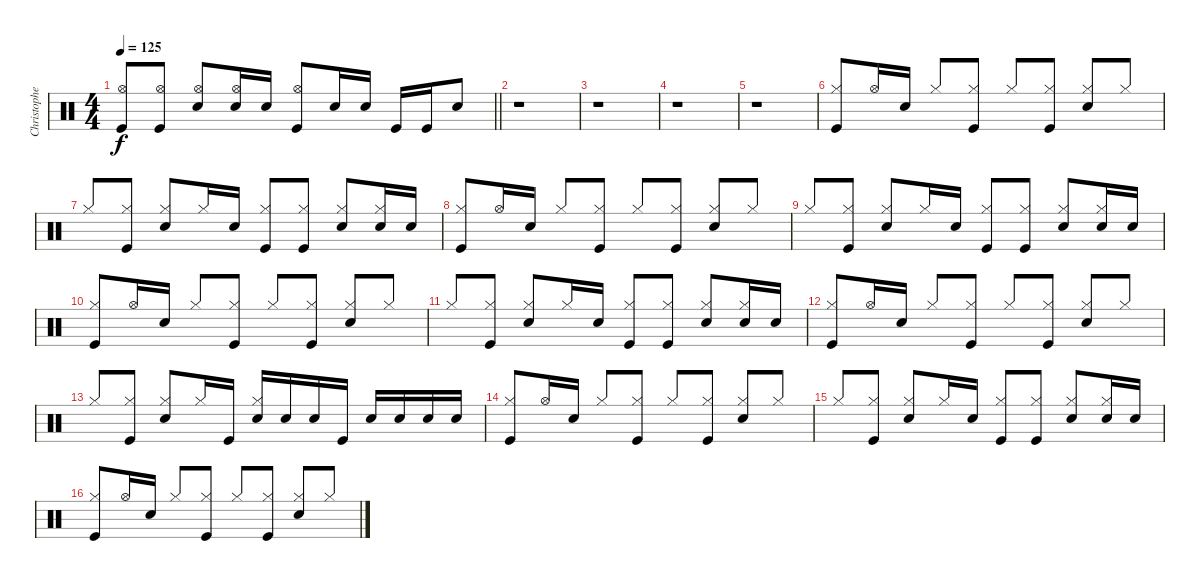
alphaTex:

\track ("Christopher Guanlao - Drums" "Christophe") {instrument percussion}
\staff {score}
\articulation defaults
\ts (4 4)
\tempo 125
\clef neutral
\barLineRight lightlight
\ks c
("Hi-Hat (open)" "Kick (hit)").8{dy f beam Up} ("Hi-Hat (open)" "Kick (hit)").8{beam Up} ("Hi-Hat (open)" "Electric Snare (hit)").8{beam Up} ("Hi-Hat (open)" "Electric Snare (hit)").16{beam Up} "Electric Snare (hit)".16{beam Up} ("Hi-Hat (open)" "Kick (hit)").8{beam Up} "Electric Snare (hit)".16{beam Up} "Electric Snare (hit)".16{beam Up} "Kick (hit)".16 "Kick (hit)".16 "Electric Snare (hit)".8 |
r.1 |
r.1 |
r.1 |
r.1 |
("Hi-Hat (closed)" "Kick (hit)").8{volume 14 beam Up} "Hi-Hat (open)".16{beam Up} "Electric Snare (hit)".16{beam Up} "Hi-Hat (closed)".8{beam Up} ("Hi-Hat (closed)" "Kick (hit)").8{beam Up} "Hi-Hat (closed)".8{beam Up} ("Hi-Hat (closed)" "Kick (hit)").8{beam Up} ("Hi-Hat (closed)" "Electric Snare (hit)").8{beam Up} "Hi-Hat (closed)".8{beam Up} |
"Hi-Hat (closed)".8{beam Up} ("Hi-Hat (closed)" "Kick (hit)").8{beam Up} ("Hi-Hat (closed)" "Electric Snare (hit)").8{beam Up} "Hi-Hat (closed)".16{beam Up} "Electric Snare (hit)".16{beam Up} ("Hi-Hat (closed)" "Kick (hit)").8{beam Up} ("Hi-Hat (closed)" "Kick (hit)").8{beam Up} ("Hi-Hat (closed)" "Electric Snare (hit)").8{beam Up} ("Hi-Hat (closed)" "Electric Snare (hit)").16{beam Up} "Electric Snare (hit)".16{beam Up} |
("Hi-Hat (closed)" "Kick (hit)").8{beam Up} "Hi-Hat (open)".16{beam Up} "Electric Snare (hit)".16{beam Up} "Hi-Hat (closed)".8{beam Up} ("Hi-Hat (closed)" "Kick (hit)").8{beam Up} "Hi-Hat (closed)".8{beam Up} ("Hi-Hat (closed)" "Kick (hit)").8{beam Up} ("Hi-Hat (closed)" "Electric Snare (hit)").8{beam Up} "Hi-Hat (closed)".8{beam Up} |
"Hi-Hat (closed)".8{beam Up} ("Hi-Hat (closed)" "Kick (hit)").8{beam Up} ("Hi-Hat (closed)" "Electric Snare (hit)").8{beam Up} "Hi-Hat (closed)".16{beam Up} "Electric Snare (hit)".16{beam Up} ("Hi-Hat (closed)" "Kick (hit)").8{beam Up} ("Hi-Hat (closed)" "Kick (hit)").8{beam Up} ("Hi-Hat (closed)" "Electric Snare (hit)").8{beam Up} ("Hi-Hat (closed)" "Electric Snare (hit)").16{beam Up} "Electric Snare (hit)".16{beam Up} |
("Hi-Hat (closed)" "Kick (hit)").8{beam Up} "Hi-Hat (open)".16{beam Up} "Electric Snare (hit)".16{beam Up} "Hi-Hat (closed)".8{beam Up} ("Hi-Hat (closed)" "Kick (hit)").8{beam Up} "Hi-Hat (closed)".8{beam Up} ("Hi-Hat (closed)" "Kick (hit)").8{beam Up} ("Hi-Hat (closed)" "Electric Snare (hit)").8{beam Up} "Hi-Hat (closed)".8{beam Up} |
"Hi-Hat (closed)".8{beam Up} ("Hi-Hat (closed)" "Kick (hit)").8{beam Up} ("Hi-Hat (closed)" "Electric Snare (hit)").8{beam Up} "Hi-Hat (closed)".16{beam Up} "Electric Snare (hit)".16{beam Up} ("Hi-Hat (closed)" "Kick (hit)").8{beam Up} ("Hi-Hat (closed)" "Kick (hit)").8{beam Up} ("Hi-Hat (closed)" "Electric Snare (hit)").8{beam Up} ("Hi-Hat (closed)" "Electric Snare (hit)").16{beam Up} "Electric Snare (hit)".16{beam Up} |
("Hi-Hat (closed)" "Kick (hit)").8{beam Up} "Hi-Hat (open)".16{beam Up} "Electric Snare (hit)".16{beam Up} "Hi-Hat (closed)".8{beam Up} ("Hi-Hat (closed)" "Kick (hit)").8{beam Up} "Hi-Hat (closed)".8{beam Up} ("Hi-Hat (closed)" "Kick (hit)").8{beam Up} ("Hi-Hat (closed)" "Electric Snare (hit)").8{beam Up} "Hi-Hat (closed)".8{beam Up} |
"Hi-Hat (closed)".8{beam Up} ("Hi-Hat (closed)" "Kick (hit)").8{beam Up} ("Hi-Hat (closed)" "Electric Snare (hit)").8{beam Up} "Hi-Hat (closed)".16{beam Up} "Kick (hit)".16{beam Up} ("Hi-Hat (closed)" "Electric Snare (hit)").16{beam Up} "Electric Snare (hit)".16{beam Up} "Electric Snare (hit)".16{beam Up} "Kick (hit)".16{beam Up} "Electric Snare (hit)".16{beam Up} "Electric Snare (hit)".16{beam Up} "Electric Snare (hit)".16{beam Up} "Electric Snare (hit)".16{beam Up} |
("Hi-Hat (closed)" "Kick (hit)").8{beam Up} "Hi-Hat (open)".16{beam Up} "Electric Snare (hit)".16{beam Up} "Hi-Hat (closed)".8{beam Up} ("Hi-Hat (closed)" "Kick (hit)").8{beam Up} "Hi-Hat (closed)".8{beam Up} ("Hi-Hat (closed)" "Kick (hit)").8{beam Up} ("Hi-Hat (closed)" "Electric Snare (hit)").8{beam Up} "Hi-Hat (closed)".8{beam Up} |
"Hi-Hat (closed)".8{beam Up} ("Hi-Hat (closed)" "Kick (hit)").8{beam Up} ("Hi-Hat (closed)" "Electric Snare (hit)").8{beam Up} "Hi-Hat (closed)".16{beam Up} "Electric Snare (hit)".16{beam Up} ("Hi-Hat (closed)" "Kick (hit)").8{beam Up} ("Hi-Hat (closed)" "Kick (hit)").8{beam Up} ("Hi-Hat (closed)" "Electric Snare (hit)").8{beam Up} ("Hi-Hat (closed)" "Electric Snare (hit)").16{beam Up} "Electric Snare (hit)".16{beam Up} |
("Hi-Hat (closed)" "Kick (hit)").8{beam Up} "Hi-Hat (open)".16{beam Up} "Electric Snare (hit)".16{beam Up} "Hi-Hat (closed)".8{beam Up} ("Hi-Hat (closed)" "Kick (hit)").8{beam Up} "Hi-Hat (closed)".8{beam Up} ("Hi-Hat (closed)" "Kick (hit)").8{beam Up} ("Hi-Hat (closed)" "Electric Snare (hit)").8{beam Up} "Hi-Hat (closed)".8{beam Up}
